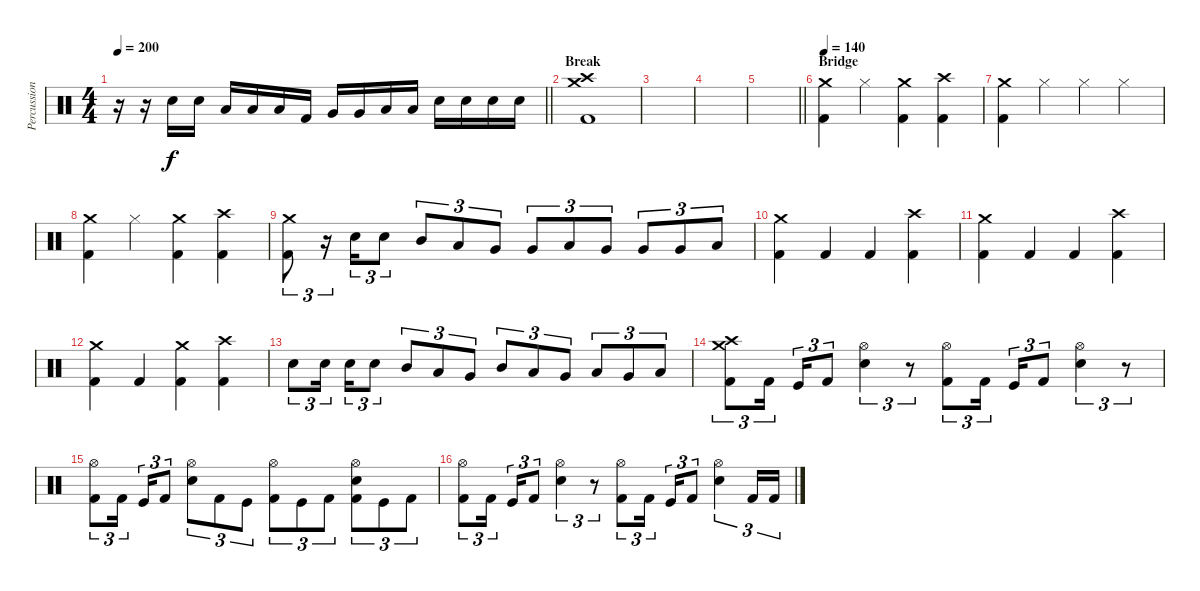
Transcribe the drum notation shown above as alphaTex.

\track ("Percussion" "Percussion") {instrument percussion}
\staff {score}
\articulation defaults
\ts (4 4)
\tempo 200
\clef neutral
\barLineRight lightlight
\ks c
r.16{dy f} r.16 "Snare (hit) 2".16 "Snare (hit) 2".16 "Low Tom (hit)".16 "Low Tom (hit)".16 "Low Tom (hit)".16 "Kick (hit) 2".16 "Very Low Tom (hit)".16 "Very Low Tom (hit)".16 "Low Floor Tom (hit)".16 "Low Floor Tom (hit)".16 "Snare (hit) 2".16 "Snare (hit) 2".16 "Snare (hit) 2".16 "Snare (hit) 2".16 |
\section ("" "Break")
("Crash medium (hit)" "Crash high (hit)" "Kick (hit) 2").1 |
|
|
\barLineRight lightlight
|
\section ("" "Bridge")
\tempo 140
("Crash medium (hit)" "Kick (hit) 2").4 "Hi-Hat (closed)".4 ("Crash medium (hit)" "Kick (hit) 2").4 ("Crash high (hit)" "Kick (hit) 2").4 |
("Crash medium (hit)" "Kick (hit) 2").4 "Hi-Hat (closed)".4 "Hi-Hat (closed)".4 "Hi-Hat (closed)".4 |
("Crash medium (hit)" "Kick (hit) 2").4 "Hi-Hat (closed)".4 ("Crash medium (hit)" "Kick (hit) 2").4 ("Crash high (hit)" "Kick (hit) 2").4 |
("Crash medium (hit)" "Kick (hit) 2").8{tu (3 2)} r.16{tu (3 2)} "Snare (hit) 2".16{tu (3 2)} "Snare (hit) 2".8{tu (3 2)} "Mid Tom (hit)".8{tu (3 2)} "Low Tom (hit)".8{tu (3 2)} "Very Low Tom (hit)".8{tu (3 2)} "Very Low Tom (hit)".8{tu (3 2)} "Low Tom (hit)".8{tu (3 2)} "Very Low Tom (hit)".8{tu (3 2)} "Very Low Tom (hit)".8{tu (3 2)} "Very Low Tom (hit)".8{tu (3 2)} "Low Tom (hit)".8{tu (3 2)} |
("Crash medium (hit)" "Kick (hit) 2").4 "Kick (hit) 2".4 "Kick (hit) 2".4 ("Crash high (hit)" "Kick (hit) 2").4 |
("Crash medium (hit)" "Kick (hit) 2").4 "Kick (hit) 2".4 "Kick (hit) 2".4 ("Crash high (hit)" "Kick (hit) 2").4 |
("Crash medium (hit)" "Kick (hit) 2").4 "Kick (hit) 2".4 ("Crash medium (hit)" "Kick (hit) 2").4 ("Crash high (hit)" "Kick (hit) 2").4 |
"Snare (hit) 2".8{tu (3 2)} "Snare (hit) 2".16{tu (3 2) beam splitsecondary} "Snare (hit) 2".16{tu (3 2)} "Snare (hit) 2".8{tu (3 2)} "Mid Tom (hit)".8{tu (3 2)} "Low Tom (hit)".8{tu (3 2)} "Very Low Tom (hit)".8{tu (3 2)} "Mid Tom (hit)".8{tu (3 2)} "Low Tom (hit)".8{tu (3 2)} "Very Low Tom (hit)".8{tu (3 2)} "Low Tom (hit)".8{tu (3 2)} "Very Low Tom (hit)".8{tu (3 2)} "Low Floor Tom (hit)".8{tu (3 2)} |
("Crash medium (hit)" "Crash high (hit)" "Kick (hit) 2").8{tu (3 2)} "Kick (hit) 2".16{tu (3 2) beam splitsecondary} "Kick (hit)".16{tu (3 2)} "Kick (hit) 2".8{tu (3 2)} ("Hi-Hat (open)" "Snare (hit) 2").4{tu (3 2)} r.8{tu (3 2)} ("Hi-Hat (open)" "Kick (hit) 2").8{tu (3 2)} "Kick (hit) 2".16{tu (3 2) beam splitsecondary} "Kick (hit)".16{tu (3 2)} "Kick (hit) 2".8{tu (3 2)} ("Hi-Hat (open)" "Snare (hit) 2").4{tu (3 2)} r.8{tu (3 2)} |
("Hi-Hat (open)" "Kick (hit) 2").8{tu (3 2)} "Kick (hit) 2".16{tu (3 2) beam splitsecondary} "Kick (hit)".16{tu (3 2)} "Kick (hit) 2".8{tu (3 2)} ("Hi-Hat (open)" "Snare (hit) 2").8{tu (3 2)} "Kick (hit) 2".8{tu (3 2)} "Kick (hit)".8{tu (3 2)} ("Hi-Hat (open)" "Kick (hit) 2").8{tu (3 2)} "Kick (hit)".8{tu (3 2)} "Kick (hit) 2".8{tu (3 2)} ("Hi-Hat (open)" "Snare (hit) 2" "Kick (hit) 2").8{tu (3 2)} "Kick (hit)".8{tu (3 2)} "Kick (hit) 2".8{tu (3 2)} |
("Hi-Hat (open)" "Kick (hit) 2").8{tu (3 2)} "Kick (hit) 2".16{tu (3 2) beam splitsecondary} "Kick (hit)".16{tu (3 2)} "Kick (hit) 2".8{tu (3 2)} ("Hi-Hat (open)" "Snare (hit) 2").4{tu (3 2)} r.8{tu (3 2)} ("Hi-Hat (open)" "Kick (hit) 2").8{tu (3 2)} "Kick (hit) 2".16{tu (3 2) beam splitsecondary} "Kick (hit)".16{tu (3 2)} "Kick (hit) 2".8{tu (3 2)} ("Hi-Hat (open)" "Snare (hit) 2").4{tu (3 2)} "Kick (hit) 2".16{tu (3 2)} "Kick (hit) 2".16{tu (3 2)}
